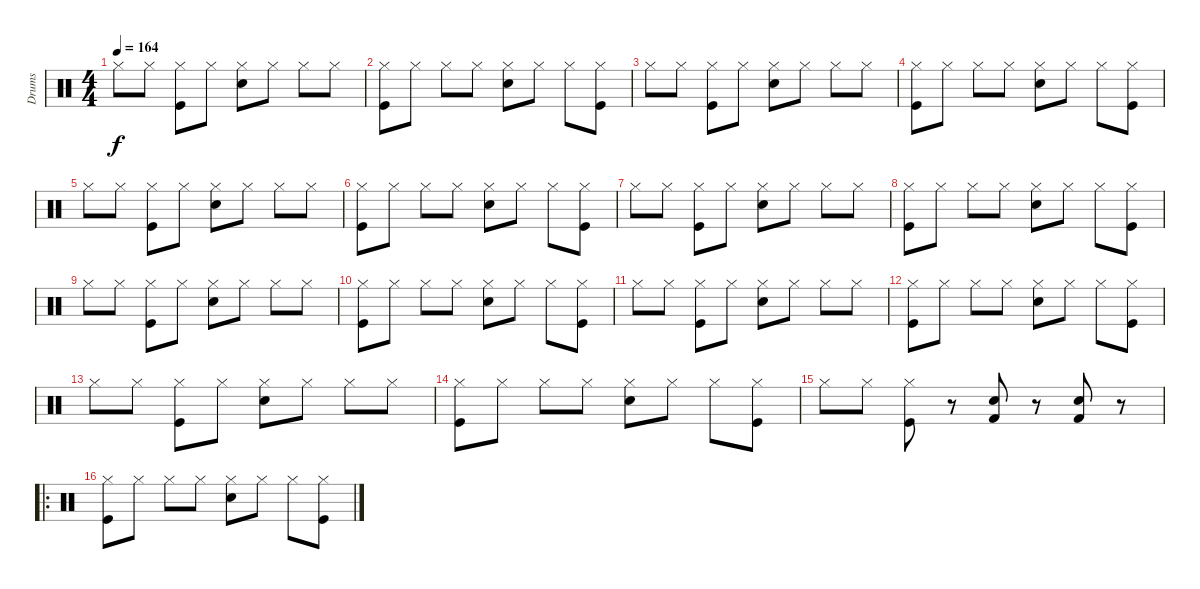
\track ("Drums" "Drums") {instrument percussion}
\staff {score}
\articulation defaults
\ts (4 4)
\tempo 164
\clef neutral
\ks c "Hi-Hat (closed)".8{dy f} "Hi-Hat (closed)".8
("Kick (hit)" "Hi-Hat (closed)").8 "Hi-Hat (closed)".8 ("Snare (hit) 2" "Hi-Hat (closed)").8 "Hi-Hat (closed)".8 "Hi-Hat (closed)".8 "Hi-Hat (closed)".8 |
("Kick (hit)" "Hi-Hat (closed)").8 "Hi-Hat (closed)".8 "Hi-Hat (closed)".8 "Hi-Hat (closed)".8 ("Snare (hit) 2" "Hi-Hat (closed)").8 "Hi-Hat (closed)".8 "Hi-Hat (closed)".8 ("Kick (hit)" "Hi-Hat (closed)").8 |
"Hi-Hat (closed)".8 "Hi-Hat (closed)".8 ("Kick (hit)" "Hi-Hat (closed)").8 "Hi-Hat (closed)".8 ("Snare (hit) 2" "Hi-Hat (closed)").8 "Hi-Hat (closed)".8 "Hi-Hat (closed)".8 "Hi-Hat (closed)".8 |
("Kick (hit)" "Hi-Hat (closed)").8 "Hi-Hat (closed)".8 "Hi-Hat (closed)".8 "Hi-Hat (closed)".8 ("Snare (hit) 2" "Hi-Hat (closed)").8 "Hi-Hat (closed)".8 "Hi-Hat (closed)".8 ("Kick (hit)" "Hi-Hat (closed)").8 |
"Hi-Hat (closed)".8 "Hi-Hat (closed)".8 ("Kick (hit)" "Hi-Hat (closed)").8 "Hi-Hat (closed)".8 ("Snare (hit) 2" "Hi-Hat (closed)").8 "Hi-Hat (closed)".8 "Hi-Hat (closed)".8 "Hi-Hat (closed)".8 |
("Kick (hit)" "Hi-Hat (closed)").8 "Hi-Hat (closed)".8 "Hi-Hat (closed)".8 "Hi-Hat (closed)".8 ("Snare (hit) 2" "Hi-Hat (closed)").8 "Hi-Hat (closed)".8 "Hi-Hat (closed)".8 ("Kick (hit)" "Hi-Hat (closed)").8 |
"Hi-Hat (closed)".8 "Hi-Hat (closed)".8 ("Kick (hit)" "Hi-Hat (closed)").8 "Hi-Hat (closed)".8 ("Snare (hit) 2" "Hi-Hat (closed)").8 "Hi-Hat (closed)".8 "Hi-Hat (closed)".8 "Hi-Hat (closed)".8 |
("Kick (hit)" "Hi-Hat (closed)").8 "Hi-Hat (closed)".8 "Hi-Hat (closed)".8 "Hi-Hat (closed)".8 ("Snare (hit) 2" "Hi-Hat (closed)").8 "Hi-Hat (closed)".8 "Hi-Hat (closed)".8 ("Kick (hit)" "Hi-Hat (closed)").8 |
"Hi-Hat (closed)".8 "Hi-Hat (closed)".8 ("Kick (hit)" "Hi-Hat (closed)").8 "Hi-Hat (closed)".8 ("Snare (hit) 2" "Hi-Hat (closed)").8 "Hi-Hat (closed)".8 "Hi-Hat (closed)".8 "Hi-Hat (closed)".8 |
("Kick (hit)" "Hi-Hat (closed)").8 "Hi-Hat (closed)".8 "Hi-Hat (closed)".8 "Hi-Hat (closed)".8 ("Snare (hit) 2" "Hi-Hat (closed)").8 "Hi-Hat (closed)".8 "Hi-Hat (closed)".8 ("Kick (hit)" "Hi-Hat (closed)").8 |
"Hi-Hat (closed)".8 "Hi-Hat (closed)".8 ("Kick (hit)" "Hi-Hat (closed)").8 "Hi-Hat (closed)".8 ("Snare (hit) 2" "Hi-Hat (closed)").8 "Hi-Hat (closed)".8 "Hi-Hat (closed)".8 "Hi-Hat (closed)".8 |
("Kick (hit)" "Hi-Hat (closed)").8 "Hi-Hat (closed)".8 "Hi-Hat (closed)".8 "Hi-Hat (closed)".8 ("Snare (hit) 2" "Hi-Hat (closed)").8 "Hi-Hat (closed)".8 "Hi-Hat (closed)".8 ("Kick (hit)" "Hi-Hat (closed)").8 |
"Hi-Hat (closed)".8 "Hi-Hat (closed)".8 ("Kick (hit)" "Hi-Hat (closed)").8 "Hi-Hat (closed)".8 ("Snare (hit) 2" "Hi-Hat (closed)").8 "Hi-Hat (closed)".8 "Hi-Hat (closed)".8 "Hi-Hat (closed)".8 |
("Kick (hit)" "Hi-Hat (closed)").8 "Hi-Hat (closed)".8 "Hi-Hat (closed)".8 "Hi-Hat (closed)".8 ("Snare (hit) 2" "Hi-Hat (closed)").8 "Hi-Hat (closed)".8 "Hi-Hat (closed)".8 ("Kick (hit)" "Hi-Hat (closed)").8 |
"Hi-Hat (closed)".8 "Hi-Hat (closed)".8 ("Kick (hit)" "Hi-Hat (closed)").8 r.8 ("Snare (hit) 2" "Kick (hit) 2").8 r.8 ("Snare (hit) 2" "Kick (hit) 2").8 r.8 |
\ro
("Kick (hit)" "Hi-Hat (closed)").8 "Hi-Hat (closed)".8 "Hi-Hat (closed)".8 "Hi-Hat (closed)".8 ("Snare (hit) 2" "Hi-Hat (closed)").8 "Hi-Hat (closed)".8 "Hi-Hat (closed)".8 ("Kick (hit)" "Hi-Hat (closed)").8
